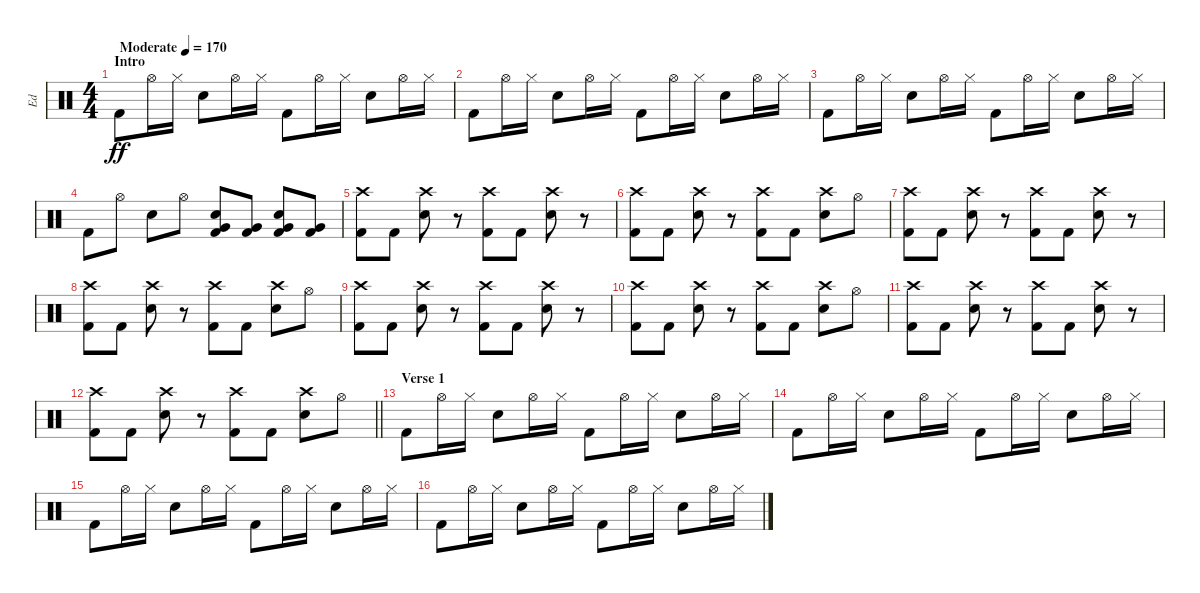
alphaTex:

\track ("Ed" "Ed") {instrument percussion}
\staff {score}
\articulation defaults
\ts (4 4)
\section ("" "Intro")
\tempo (170 "Moderate")
\clef neutral
\ks c "Kick (hit) 2".8{dy ff} "Hi-Hat (open)".16 "Hi-Hat (closed)".16 "Snare (hit) 2".8 "Hi-Hat (open)".16 "Hi-Hat (closed)".16 "Kick (hit) 2".8 "Hi-Hat (open)".16 "Hi-Hat (closed)".16 "Snare (hit) 2".8 "Hi-Hat (open)".16 "Hi-Hat (closed)".16
|
"Kick (hit) 2".8 "Hi-Hat (open)".16 "Hi-Hat (closed)".16 "Snare (hit) 2".8 "Hi-Hat (open)".16 "Hi-Hat (closed)".16 "Kick (hit) 2".8 "Hi-Hat (open)".16 "Hi-Hat (closed)".16 "Snare (hit) 2".8 "Hi-Hat (open)".16 "Hi-Hat (closed)".16 |
"Kick (hit) 2".8 "Hi-Hat (open)".16 "Hi-Hat (closed)".16 "Snare (hit) 2".8 "Hi-Hat (open)".16 "Hi-Hat (closed)".16 "Kick (hit) 2".8 "Hi-Hat (open)".16 "Hi-Hat (closed)".16 "Snare (hit) 2".8 "Hi-Hat (open)".16 "Hi-Hat (closed)".16 |
"Kick (hit) 2".8 "Hi-Hat (open)".8 "Snare (hit) 2".8 "Hi-Hat (open)".8 ("Snare (hit) 2" "Kick (hit) 2" "Very Low Tom (hit)").8 ("Kick (hit) 2" "Very Low Tom (hit)").8 ("Snare (hit) 2" "Kick (hit) 2" "Very Low Tom (hit)").8 ("Kick (hit) 2" "Very Low Tom (hit)").8 |
("Kick (hit) 2" "Crash high (hit)").8 "Kick (hit) 2".8 ("Snare (hit) 2" "Crash high (hit)").8 r.8 ("Kick (hit) 2" "Crash high (hit)").8 "Kick (hit) 2".8 ("Snare (hit) 2" "Crash high (hit)").8 r.8 |
("Kick (hit) 2" "Crash high (hit)").8 "Kick (hit) 2".8 ("Snare (hit) 2" "Crash high (hit)").8 r.8 ("Kick (hit) 2" "Crash high (hit)").8 "Kick (hit) 2".8 ("Snare (hit) 2" "Crash high (hit)").8 "Hi-Hat (open)".8 |
("Kick (hit) 2" "Crash high (hit)").8 "Kick (hit) 2".8 ("Snare (hit) 2" "Crash high (hit)").8 r.8 ("Kick (hit) 2" "Crash high (hit)").8 "Kick (hit) 2".8 ("Snare (hit) 2" "Crash high (hit)").8 r.8 |
("Kick (hit) 2" "Crash high (hit)").8 "Kick (hit) 2".8 ("Snare (hit) 2" "Crash high (hit)").8 r.8 ("Kick (hit) 2" "Crash high (hit)").8 "Kick (hit) 2".8 ("Snare (hit) 2" "Crash high (hit)").8 "Hi-Hat (open)".8 |
("Kick (hit) 2" "Crash high (hit)").8 "Kick (hit) 2".8 ("Snare (hit) 2" "Crash high (hit)").8 r.8 ("Kick (hit) 2" "Crash high (hit)").8 "Kick (hit) 2".8 ("Snare (hit) 2" "Crash high (hit)").8 r.8 |
("Kick (hit) 2" "Crash high (hit)").8 "Kick (hit) 2".8 ("Snare (hit) 2" "Crash high (hit)").8 r.8 ("Kick (hit) 2" "Crash high (hit)").8 "Kick (hit) 2".8 ("Snare (hit) 2" "Crash high (hit)").8 "Hi-Hat (open)".8 |
("Kick (hit) 2" "Crash high (hit)").8 "Kick (hit) 2".8 ("Snare (hit) 2" "Crash high (hit)").8 r.8 ("Kick (hit) 2" "Crash high (hit)").8 "Kick (hit) 2".8 ("Snare (hit) 2" "Crash high (hit)").8 r.8 |
\barLineRight lightlight
("Kick (hit) 2" "Crash high (hit)").8 "Kick (hit) 2".8 ("Snare (hit) 2" "Crash high (hit)").8 r.8 ("Kick (hit) 2" "Crash high (hit)").8 "Kick (hit) 2".8 ("Snare (hit) 2" "Crash high (hit)").8 "Hi-Hat (open)".8 |
\section ("" "Verse 1")
"Kick (hit) 2".8 "Hi-Hat (open)".16 "Hi-Hat (closed)".16 "Snare (hit) 2".8 "Hi-Hat (open)".16 "Hi-Hat (closed)".16 "Kick (hit) 2".8 "Hi-Hat (open)".16 "Hi-Hat (closed)".16 "Snare (hit) 2".8 "Hi-Hat (open)".16 "Hi-Hat (closed)".16 |
"Kick (hit) 2".8 "Hi-Hat (open)".16 "Hi-Hat (closed)".16 "Snare (hit) 2".8 "Hi-Hat (open)".16 "Hi-Hat (closed)".16 "Kick (hit) 2".8 "Hi-Hat (open)".16 "Hi-Hat (closed)".16 "Snare (hit) 2".8 "Hi-Hat (open)".16 "Hi-Hat (closed)".16 |
"Kick (hit) 2".8 "Hi-Hat (open)".16 "Hi-Hat (closed)".16 "Snare (hit) 2".8 "Hi-Hat (open)".16 "Hi-Hat (closed)".16 "Kick (hit) 2".8 "Hi-Hat (open)".16 "Hi-Hat (closed)".16 "Snare (hit) 2".8 "Hi-Hat (open)".16 "Hi-Hat (closed)".16 |
"Kick (hit) 2".8 "Hi-Hat (open)".16 "Hi-Hat (closed)".16 "Snare (hit) 2".8 "Hi-Hat (open)".16 "Hi-Hat (closed)".16 "Kick (hit) 2".8 "Hi-Hat (open)".16 "Hi-Hat (closed)".16 "Snare (hit) 2".8 "Hi-Hat (open)".16 "Hi-Hat (closed)".16
